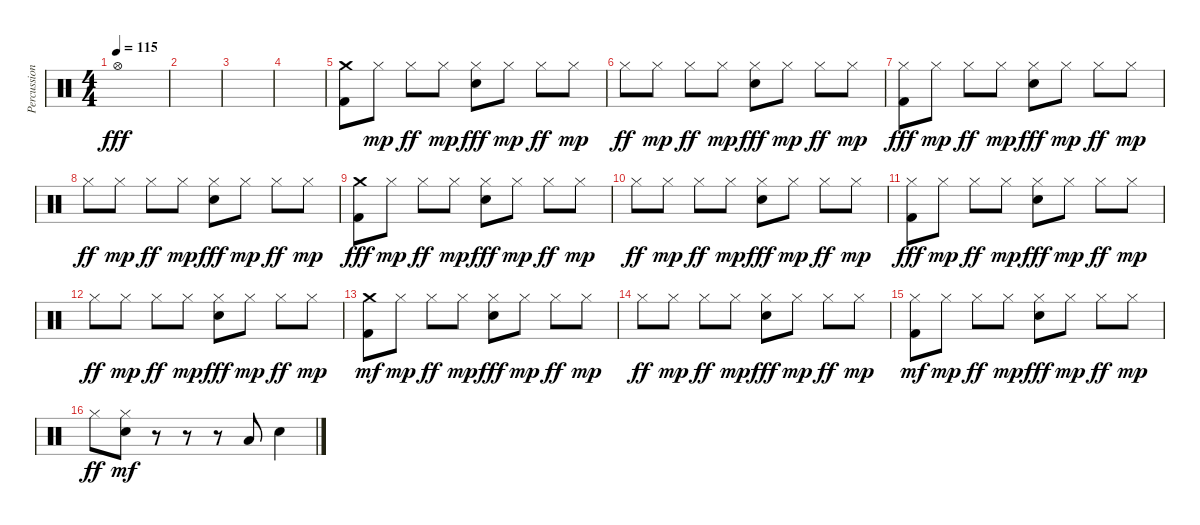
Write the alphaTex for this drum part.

\track ("Percussion" "Percussion") {instrument percussion}
\staff {score}
\articulation defaults
\ts (4 4)
\tempo 115
\clef neutral
\ks c "Hi-Hat (open)".1{dy fff}
|
|
|
|
("Crash medium (hit)" "Kick (hit) 2").8 "Hi-Hat (closed)".8{dy mp} "Hi-Hat (closed)".8{dy ff} "Hi-Hat (closed)".8{dy mp} ("Hi-Hat (closed)" "Snare (hit) 2").8{dy fff} "Hi-Hat (closed)".8{dy mp} "Hi-Hat (closed)".8{dy ff} "Hi-Hat (closed)".8{dy mp} |
"Hi-Hat (closed)".8{dy ff} "Hi-Hat (closed)".8{dy mp} "Hi-Hat (closed)".8{dy ff} "Hi-Hat (closed)".8{dy mp} ("Hi-Hat (closed)" "Snare (hit) 2").8{dy fff} "Hi-Hat (closed)".8{dy mp} "Hi-Hat (closed)".8{dy ff} "Hi-Hat (closed)".8{dy mp} |
("Hi-Hat (closed)" "Kick (hit) 2").8{dy fff} "Hi-Hat (closed)".8{dy mp} "Hi-Hat (closed)".8{dy ff} "Hi-Hat (closed)".8{dy mp} ("Hi-Hat (closed)" "Snare (hit) 2").8{dy fff} "Hi-Hat (closed)".8{dy mp} "Hi-Hat (closed)".8{dy ff} "Hi-Hat (closed)".8{dy mp} |
"Hi-Hat (closed)".8{dy ff} "Hi-Hat (closed)".8{dy mp} "Hi-Hat (closed)".8{dy ff} "Hi-Hat (closed)".8{dy mp} ("Hi-Hat (closed)" "Snare (hit) 2").8{dy fff} "Hi-Hat (closed)".8{dy mp} "Hi-Hat (closed)".8{dy ff} "Hi-Hat (closed)".8{dy mp} |
("Crash medium (hit)" "Kick (hit) 2").8{dy fff} "Hi-Hat (closed)".8{dy mp} "Hi-Hat (closed)".8{dy ff} "Hi-Hat (closed)".8{dy mp} ("Hi-Hat (closed)" "Snare (hit) 2").8{dy fff} "Hi-Hat (closed)".8{dy mp} "Hi-Hat (closed)".8{dy ff} "Hi-Hat (closed)".8{dy mp} |
"Hi-Hat (closed)".8{dy ff} "Hi-Hat (closed)".8{dy mp} "Hi-Hat (closed)".8{dy ff} "Hi-Hat (closed)".8{dy mp} ("Hi-Hat (closed)" "Snare (hit) 2").8{dy fff} "Hi-Hat (closed)".8{dy mp} "Hi-Hat (closed)".8{dy ff} "Hi-Hat (closed)".8{dy mp} |
("Hi-Hat (closed)" "Kick (hit) 2").8{dy fff} "Hi-Hat (closed)".8{dy mp} "Hi-Hat (closed)".8{dy ff} "Hi-Hat (closed)".8{dy mp} ("Hi-Hat (closed)" "Snare (hit) 2").8{dy fff} "Hi-Hat (closed)".8{dy mp} "Hi-Hat (closed)".8{dy ff} "Hi-Hat (closed)".8{dy mp} |
"Hi-Hat (closed)".8{dy ff} "Hi-Hat (closed)".8{dy mp} "Hi-Hat (closed)".8{dy ff} "Hi-Hat (closed)".8{dy mp} ("Hi-Hat (closed)" "Snare (hit) 2").8{dy fff} "Hi-Hat (closed)".8{dy mp} "Hi-Hat (closed)".8{dy ff} "Hi-Hat (closed)".8{dy mp} |
("Crash medium (hit)" "Kick (hit) 2").8{dy mf} "Hi-Hat (closed)".8{dy mp} "Hi-Hat (closed)".8{dy ff} "Hi-Hat (closed)".8{dy mp} ("Hi-Hat (closed)" "Snare (hit) 2").8{dy fff} "Hi-Hat (closed)".8{dy mp} "Hi-Hat (closed)".8{dy ff} "Hi-Hat (closed)".8{dy mp} |
"Hi-Hat (closed)".8{dy ff} "Hi-Hat (closed)".8{dy mp} "Hi-Hat (closed)".8{dy ff} "Hi-Hat (closed)".8{dy mp} ("Hi-Hat (closed)" "Snare (hit) 2").8{dy fff} "Hi-Hat (closed)".8{dy mp} "Hi-Hat (closed)".8{dy ff} "Hi-Hat (closed)".8{dy mp} |
("Hi-Hat (closed)" "Kick (hit) 2").8{dy mf} "Hi-Hat (closed)".8{dy mp} "Hi-Hat (closed)".8{dy ff} "Hi-Hat (closed)".8{dy mp} ("Hi-Hat (closed)" "Snare (hit) 2").8{dy fff} "Hi-Hat (closed)".8{dy mp} "Hi-Hat (closed)".8{dy ff} "Hi-Hat (closed)".8{dy mp} |
"Hi-Hat (closed)".8{dy ff} ("Hi-Hat (closed)" "Snare (hit) 2").8{dy mf} r.8 r.8 r.8 "Low Tom (hit)".8 "Snare (hit) 2".4
